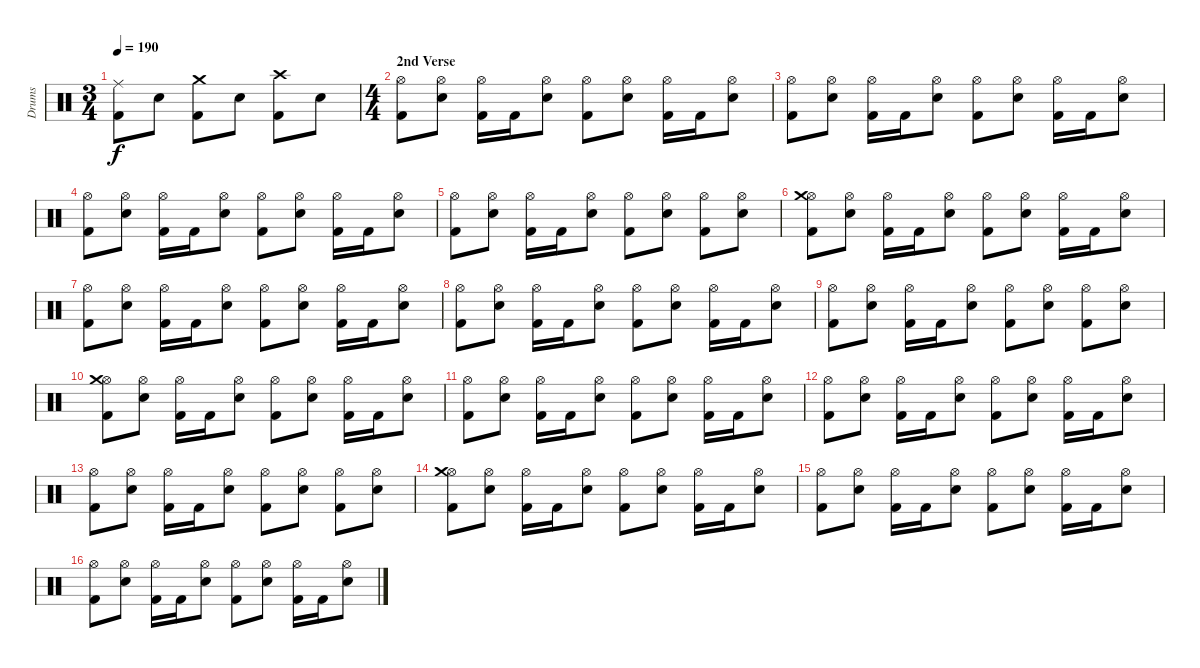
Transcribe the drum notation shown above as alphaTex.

\track ("Drums" "Drums") {instrument percussion}
\staff {score}
\articulation defaults
\ts (3 4)
\tempo 190
\clef neutral
\ks c
("Kick (hit) 2" "Ride (middle)").8{dy f} "Electric Snare (hit)".8 ("Kick (hit) 2" "Crash medium (hit)").8 "Electric Snare (hit)".8 ("Kick (hit) 2" "Crash high (hit)").8 "Electric Snare (hit)".8 |
\ts (4 4)
\section ("" "2nd Verse")
("Kick (hit) 2" "Hi-Hat (open)").8 ("Electric Snare (hit)" "Hi-Hat (open)").8 ("Kick (hit) 2" "Hi-Hat (open)").16 "Kick (hit) 2".16 ("Electric Snare (hit)" "Hi-Hat (open)").8 ("Kick (hit) 2" "Hi-Hat (open)").8 ("Electric Snare (hit)" "Hi-Hat (open)").8 ("Kick (hit) 2" "Hi-Hat (open)").16 "Kick (hit) 2".16 ("Electric Snare (hit)" "Hi-Hat (open)").8 |
("Kick (hit) 2" "Hi-Hat (open)").8 ("Electric Snare (hit)" "Hi-Hat (open)").8 ("Kick (hit) 2" "Hi-Hat (open)").16 "Kick (hit) 2".16 ("Electric Snare (hit)" "Hi-Hat (open)").8 ("Kick (hit) 2" "Hi-Hat (open)").8 ("Electric Snare (hit)" "Hi-Hat (open)").8 ("Kick (hit) 2" "Hi-Hat (open)").16 "Kick (hit) 2".16 ("Electric Snare (hit)" "Hi-Hat (open)").8 |
("Kick (hit) 2" "Hi-Hat (open)").8 ("Electric Snare (hit)" "Hi-Hat (open)").8 ("Kick (hit) 2" "Hi-Hat (open)").16 "Kick (hit) 2".16 ("Electric Snare (hit)" "Hi-Hat (open)").8 ("Kick (hit) 2" "Hi-Hat (open)").8 ("Electric Snare (hit)" "Hi-Hat (open)").8 ("Kick (hit) 2" "Hi-Hat (open)").16 "Kick (hit) 2".16 ("Electric Snare (hit)" "Hi-Hat (open)").8 |
("Kick (hit) 2" "Hi-Hat (open)").8 ("Electric Snare (hit)" "Hi-Hat (open)").8 ("Kick (hit) 2" "Hi-Hat (open)").16 "Kick (hit) 2".16 ("Electric Snare (hit)" "Hi-Hat (open)").8 ("Kick (hit) 2" "Hi-Hat (open)").8 ("Electric Snare (hit)" "Hi-Hat (open)").8 ("Kick (hit) 2" "Hi-Hat (open)").8 ("Electric Snare (hit)" "Hi-Hat (open)").8 |
("Kick (hit) 2" "Hi-Hat (open)" "Crash medium (hit)").8 ("Electric Snare (hit)" "Hi-Hat (open)").8 ("Kick (hit) 2" "Hi-Hat (open)").16 "Kick (hit) 2".16 ("Electric Snare (hit)" "Hi-Hat (open)").8 ("Kick (hit) 2" "Hi-Hat (open)").8 ("Electric Snare (hit)" "Hi-Hat (open)").8 ("Kick (hit) 2" "Hi-Hat (open)").16 "Kick (hit) 2".16 ("Electric Snare (hit)" "Hi-Hat (open)").8 |
("Kick (hit) 2" "Hi-Hat (open)").8 ("Electric Snare (hit)" "Hi-Hat (open)").8 ("Kick (hit) 2" "Hi-Hat (open)").16 "Kick (hit) 2".16 ("Electric Snare (hit)" "Hi-Hat (open)").8 ("Kick (hit) 2" "Hi-Hat (open)").8 ("Electric Snare (hit)" "Hi-Hat (open)").8 ("Kick (hit) 2" "Hi-Hat (open)").16 "Kick (hit) 2".16 ("Electric Snare (hit)" "Hi-Hat (open)").8 |
("Kick (hit) 2" "Hi-Hat (open)").8 ("Electric Snare (hit)" "Hi-Hat (open)").8 ("Kick (hit) 2" "Hi-Hat (open)").16 "Kick (hit) 2".16 ("Electric Snare (hit)" "Hi-Hat (open)").8 ("Kick (hit) 2" "Hi-Hat (open)").8 ("Electric Snare (hit)" "Hi-Hat (open)").8 ("Kick (hit) 2" "Hi-Hat (open)").16 "Kick (hit) 2".16 ("Electric Snare (hit)" "Hi-Hat (open)").8 |
("Kick (hit) 2" "Hi-Hat (open)").8 ("Electric Snare (hit)" "Hi-Hat (open)").8 ("Kick (hit) 2" "Hi-Hat (open)").16 "Kick (hit) 2".16 ("Electric Snare (hit)" "Hi-Hat (open)").8 ("Kick (hit) 2" "Hi-Hat (open)").8 ("Electric Snare (hit)" "Hi-Hat (open)").8 ("Kick (hit) 2" "Hi-Hat (open)").8 ("Electric Snare (hit)" "Hi-Hat (open)").8 |
("Kick (hit) 2" "Hi-Hat (open)" "Crash medium (hit)").8 ("Electric Snare (hit)" "Hi-Hat (open)").8 ("Kick (hit) 2" "Hi-Hat (open)").16 "Kick (hit) 2".16 ("Electric Snare (hit)" "Hi-Hat (open)").8 ("Kick (hit) 2" "Hi-Hat (open)").8 ("Electric Snare (hit)" "Hi-Hat (open)").8 ("Kick (hit) 2" "Hi-Hat (open)").16 "Kick (hit) 2".16 ("Electric Snare (hit)" "Hi-Hat (open)").8 |
("Kick (hit) 2" "Hi-Hat (open)").8 ("Electric Snare (hit)" "Hi-Hat (open)").8 ("Kick (hit) 2" "Hi-Hat (open)").16 "Kick (hit) 2".16 ("Electric Snare (hit)" "Hi-Hat (open)").8 ("Kick (hit) 2" "Hi-Hat (open)").8 ("Electric Snare (hit)" "Hi-Hat (open)").8 ("Kick (hit) 2" "Hi-Hat (open)").16 "Kick (hit) 2".16 ("Electric Snare (hit)" "Hi-Hat (open)").8 |
("Kick (hit) 2" "Hi-Hat (open)").8 ("Electric Snare (hit)" "Hi-Hat (open)").8 ("Kick (hit) 2" "Hi-Hat (open)").16 "Kick (hit) 2".16 ("Electric Snare (hit)" "Hi-Hat (open)").8 ("Kick (hit) 2" "Hi-Hat (open)").8 ("Electric Snare (hit)" "Hi-Hat (open)").8 ("Kick (hit) 2" "Hi-Hat (open)").16 "Kick (hit) 2".16 ("Electric Snare (hit)" "Hi-Hat (open)").8 |
("Kick (hit) 2" "Hi-Hat (open)").8 ("Electric Snare (hit)" "Hi-Hat (open)").8 ("Kick (hit) 2" "Hi-Hat (open)").16 "Kick (hit) 2".16 ("Electric Snare (hit)" "Hi-Hat (open)").8 ("Kick (hit) 2" "Hi-Hat (open)").8 ("Electric Snare (hit)" "Hi-Hat (open)").8 ("Kick (hit) 2" "Hi-Hat (open)").8 ("Electric Snare (hit)" "Hi-Hat (open)").8 |
("Kick (hit) 2" "Hi-Hat (open)" "Crash medium (hit)").8 ("Electric Snare (hit)" "Hi-Hat (open)").8 ("Kick (hit) 2" "Hi-Hat (open)").16 "Kick (hit) 2".16 ("Electric Snare (hit)" "Hi-Hat (open)").8 ("Kick (hit) 2" "Hi-Hat (open)").8 ("Electric Snare (hit)" "Hi-Hat (open)").8 ("Kick (hit) 2" "Hi-Hat (open)").16 "Kick (hit) 2".16 ("Electric Snare (hit)" "Hi-Hat (open)").8 |
("Kick (hit) 2" "Hi-Hat (open)").8 ("Electric Snare (hit)" "Hi-Hat (open)").8 ("Kick (hit) 2" "Hi-Hat (open)").16 "Kick (hit) 2".16 ("Electric Snare (hit)" "Hi-Hat (open)").8 ("Kick (hit) 2" "Hi-Hat (open)").8 ("Electric Snare (hit)" "Hi-Hat (open)").8 ("Kick (hit) 2" "Hi-Hat (open)").16 "Kick (hit) 2".16 ("Electric Snare (hit)" "Hi-Hat (open)").8 |
("Kick (hit) 2" "Hi-Hat (open)").8 ("Electric Snare (hit)" "Hi-Hat (open)").8 ("Kick (hit) 2" "Hi-Hat (open)").16 "Kick (hit) 2".16 ("Electric Snare (hit)" "Hi-Hat (open)").8 ("Kick (hit) 2" "Hi-Hat (open)").8 ("Electric Snare (hit)" "Hi-Hat (open)").8 ("Kick (hit) 2" "Hi-Hat (open)").16 "Kick (hit) 2".16 ("Electric Snare (hit)" "Hi-Hat (open)").8
